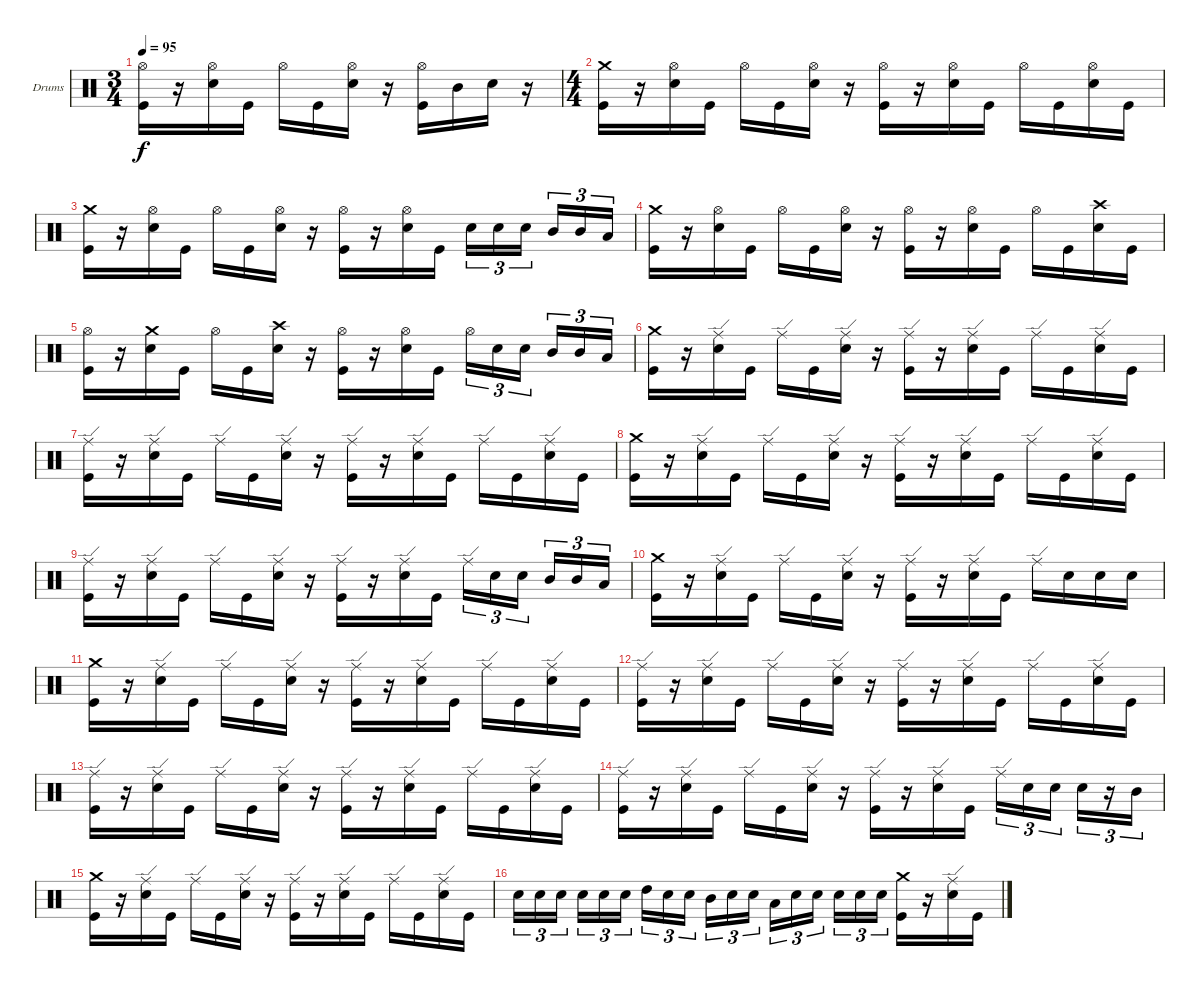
\bracketExtendMode groupsimilarinstruments
\firstSystemTrackNameOrientation horizontal
\otherSystemsTrackNameOrientation horizontal
\track ("Drumkit" "Drums") {instrument percussion}
\staff {score}
\articulation defaults
\ts (3 4)
\tempo 95
\clef neutral
\ks c
("Hi-Hat (open)" "Kick (hit)").16{dy f} r.16 ("Hi-Hat (open)" "Snare (hit) 2").16 "Kick (hit)".16 "Hi-Hat (open)".16 "Kick (hit)".16 ("Hi-Hat (open)" "Snare (hit) 2").16 r.16 ("Hi-Hat (open)" "Kick (hit)").16 "Mid Tom (hit)".16 "Snare (hit) 2".16 r.16 |
\ts (4 4)
("Crash medium (hit)" "Kick (hit)").16 r.16 ("Hi-Hat (open)" "Snare (hit) 2").16 "Kick (hit)".16 "Hi-Hat (open)".16 "Kick (hit)".16 ("Hi-Hat (open)" "Snare (hit) 2").16 r.16 ("Hi-Hat (open)" "Kick (hit)").16 r.16 ("Hi-Hat (open)" "Snare (hit) 2").16 "Kick (hit)".16 "Hi-Hat (open)".16 "Kick (hit)".16 ("Hi-Hat (open)" "Snare (hit) 2").16 "Kick (hit)".16 |
("Crash medium (hit)" "Kick (hit)").16 r.16 ("Hi-Hat (open)" "Snare (hit) 2").16 "Kick (hit)".16 "Hi-Hat (open)".16 "Kick (hit)".16 ("Hi-Hat (open)" "Snare (hit) 2").16 r.16 ("Hi-Hat (open)" "Kick (hit)").16 r.16 ("Hi-Hat (open)" "Snare (hit) 2").16 "Kick (hit)".16 "Snare (hit) 2".16{tu (3 2)} "Snare (hit) 2".16{tu (3 2)} "Snare (hit) 2".16{tu (3 2)} "Mid Tom (hit)".16{tu (3 2)} "Mid Tom (hit)".16{tu (3 2)} "Low Tom (hit)".16{tu (3 2)} |
("Crash medium (hit)" "Kick (hit)").16 r.16 ("Hi-Hat (open)" "Snare (hit) 2").16 "Kick (hit)".16 "Hi-Hat (open)".16 "Kick (hit)".16 ("Hi-Hat (open)" "Snare (hit) 2").16 r.16 ("Hi-Hat (open)" "Kick (hit)").16 r.16 ("Hi-Hat (open)" "Snare (hit) 2").16 "Kick (hit)".16 "Hi-Hat (open)".16 "Kick (hit)".16 ("Crash high (hit)" "Snare (hit) 2").16 "Kick (hit)".16 |
("Hi-Hat (open)" "Kick (hit)").16 r.16 ("Crash medium (hit)" "Snare (hit) 2").16 "Kick (hit)".16 "Hi-Hat (open)".16 "Kick (hit)".16 ("Crash high (hit)" "Snare (hit) 2").16 r.16 ("Hi-Hat (open)" "Kick (hit)").16 r.16 ("Hi-Hat (open)" "Snare (hit) 2").16 "Kick (hit)".16 "Hi-Hat (open)".16{tu (3 2)} "Snare (hit) 2".16{tu (3 2)} "Snare (hit) 2".16{tu (3 2)} "Mid Tom (hit)".16{tu (3 2)} "Mid Tom (hit)".16{tu (3 2)} "Low Tom (hit)".16{tu (3 2)} |
("Crash medium (hit)" "Kick (hit)").16 r.16 ("Ride (edge)" "Snare (hit) 2").16 "Kick (hit)".16 "Ride (edge)".16 "Kick (hit)".16 ("Ride (edge)" "Snare (hit) 2").16 r.16 ("Ride (edge)" "Kick (hit)").16 r.16 ("Ride (edge)" "Snare (hit) 2").16 "Kick (hit)".16 "Ride (edge)".16 "Kick (hit)".16 ("Ride (edge)" "Snare (hit) 2").16 "Kick (hit)".16 |
("Ride (edge)" "Kick (hit)").16 r.16 ("Ride (edge)" "Snare (hit) 2").16 "Kick (hit)".16 "Ride (edge)".16 "Kick (hit)".16 ("Ride (edge)" "Snare (hit) 2").16 r.16 ("Ride (edge)" "Kick (hit)").16 r.16 ("Ride (edge)" "Snare (hit) 2").16 "Kick (hit)".16 "Ride (edge)".16 "Kick (hit)".16 ("Ride (edge)" "Snare (hit) 2").16 "Kick (hit)".16 |
("Crash medium (hit)" "Kick (hit)").16 r.16 ("Ride (edge)" "Snare (hit) 2").16 "Kick (hit)".16 "Ride (edge)".16 "Kick (hit)".16 ("Ride (edge)" "Snare (hit) 2").16 r.16 ("Ride (edge)" "Kick (hit)").16 r.16 ("Ride (edge)" "Snare (hit) 2").16 "Kick (hit)".16 "Ride (edge)".16 "Kick (hit)".16 ("Ride (edge)" "Snare (hit) 2").16 "Kick (hit)".16 |
("Ride (edge)" "Kick (hit)").16 r.16 ("Ride (edge)" "Snare (hit) 2").16 "Kick (hit)".16 "Ride (edge)".16 "Kick (hit)".16 ("Ride (edge)" "Snare (hit) 2").16 r.16 ("Ride (edge)" "Kick (hit)").16 r.16 ("Ride (edge)" "Snare (hit) 2").16 "Kick (hit)".16 "Ride (edge)".16{tu (3 2)} "Snare (hit) 2".16{tu (3 2)} "Snare (hit) 2".16{tu (3 2)} "Mid Tom (hit)".16{tu (3 2)} "Mid Tom (hit)".16{tu (3 2)} "Low Tom (hit)".16{tu (3 2)} |
("Crash medium (hit)" "Kick (hit)").16 r.16 ("Ride (edge)" "Snare (hit) 2").16 "Kick (hit)".16 "Ride (edge)".16 "Kick (hit)".16 ("Ride (edge)" "Snare (hit) 2").16 r.16 ("Ride (edge)" "Kick (hit)").16 r.16 ("Ride (edge)" "Snare (hit) 2").16 "Kick (hit)".16 "Ride (edge)".16 "Snare (hit) 2".16 "Snare (hit) 2".16 "Snare (hit) 2".16 |
("Crash medium (hit)" "Kick (hit)").16 r.16 ("Ride (edge)" "Snare (hit) 2").16 "Kick (hit)".16 "Ride (edge)".16 "Kick (hit)".16 ("Ride (edge)" "Snare (hit) 2").16 r.16 ("Ride (edge)" "Kick (hit)").16 r.16 ("Ride (edge)" "Snare (hit) 2").16 "Kick (hit)".16 "Ride (edge)".16 "Kick (hit)".16 ("Ride (edge)" "Snare (hit) 2").16 "Kick (hit)".16 |
("Ride (edge)" "Kick (hit)").16 r.16 ("Ride (edge)" "Snare (hit) 2").16 "Kick (hit)".16 "Ride (edge)".16 "Kick (hit)".16 ("Ride (edge)" "Snare (hit) 2").16 r.16 ("Ride (edge)" "Kick (hit)").16 r.16 ("Ride (edge)" "Snare (hit) 2").16 "Kick (hit)".16 "Ride (edge)".16 "Kick (hit)".16 ("Ride (edge)" "Snare (hit) 2").16 "Kick (hit)".16 |
("Ride (edge)" "Kick (hit)").16 r.16 ("Ride (edge)" "Snare (hit) 2").16 "Kick (hit)".16 "Ride (edge)".16 "Kick (hit)".16 ("Ride (edge)" "Snare (hit) 2").16 r.16 ("Ride (edge)" "Kick (hit)").16 r.16 ("Ride (edge)" "Snare (hit) 2").16 "Kick (hit)".16 "Ride (edge)".16 "Kick (hit)".16 ("Ride (edge)" "Snare (hit) 2").16 "Kick (hit)".16 |
("Ride (edge)" "Kick (hit)").16 r.16 ("Ride (edge)" "Snare (hit) 2").16 "Kick (hit)".16 "Ride (edge)".16 "Kick (hit)".16 ("Ride (edge)" "Snare (hit) 2").16 r.16 ("Ride (edge)" "Kick (hit)").16 r.16 ("Ride (edge)" "Snare (hit) 2").16 "Kick (hit)".16 "Ride (edge)".16{tu (3 2)} "Snare (hit) 2".16{tu (3 2)} "Snare (hit) 2".16{tu (3 2)} "Snare (hit) 2".16{tu (3 2)} r.16{tu (3 2)} "Mid Tom (hit)".16{tu (3 2)} |
("Crash medium (hit)" "Kick (hit)").16 r.16 ("Ride (edge)" "Snare (hit) 2").16 "Kick (hit)".16 "Ride (edge)".16 "Kick (hit)".16 ("Ride (edge)" "Snare (hit) 2").16 r.16 ("Ride (edge)" "Kick (hit)").16 r.16 ("Ride (edge)" "Snare (hit) 2").16 "Kick (hit)".16 "Ride (edge)".16 "Kick (hit)".16 ("Ride (edge)" "Snare (hit) 2").16 "Kick (hit)".16 |
"Snare (hit) 2".16{tu (3 2)} "Snare (hit) 2".16{tu (3 2)} "Snare (hit) 2".16{tu (3 2)} "Snare (hit) 2".16{tu (3 2)} "Snare (hit) 2".16{tu (3 2)} "Snare (hit) 2".16{tu (3 2)} "High Tom (hit)".16{tu (3 2)} "Snare (hit) 2".16{tu (3 2)} "Snare (hit) 2".16{tu (3 2)} "Mid Tom (hit)".16{tu (3 2)} "Snare (hit) 2".16{tu (3 2)} "Snare (hit) 2".16{tu (3 2)} "Low Tom (hit)".16{tu (3 2)} "Snare (hit) 2".16{tu (3 2)} "Snare (hit) 2".16{tu (3 2)} "Snare (hit) 2".16{tu (3 2)} "Snare (hit) 2".16{tu (3 2)} "Snare (hit) 2".16{tu (3 2)} ("Kick (hit)" "Crash medium (hit)").16 r.16 ("Ride (edge)" "Snare (hit) 2").16 "Kick (hit)".16
